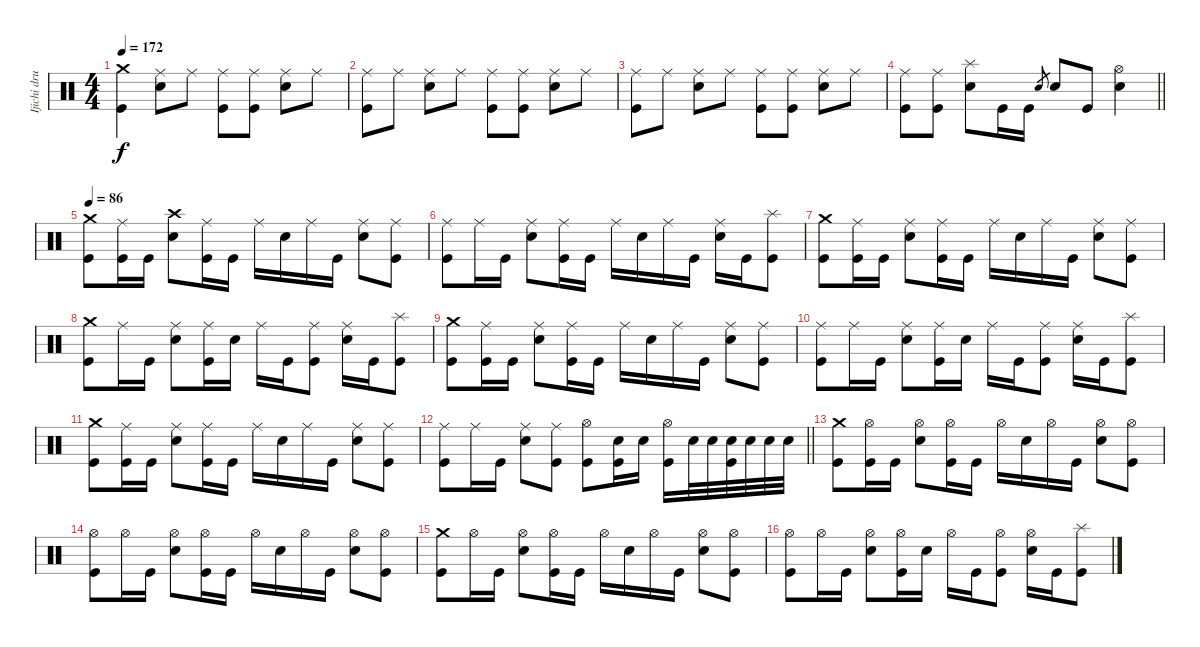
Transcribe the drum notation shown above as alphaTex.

\track ("Ijichi drums" "Ijichi dru") {instrument percussion}
\staff {score}
\articulation defaults
\ts (4 4)
\tempo 172
\clef neutral
\ks c
("Crash medium (hit)" "Kick (hit)").4{dy f} ("Ride (middle)" "Electric Snare (hit)").8 "Ride (middle)".8 ("Ride (middle)" "Kick (hit)").8 ("Ride (middle)" "Kick (hit)").8 ("Ride (middle)" "Electric Snare (hit)").8 "Ride (middle)".8 |
("Ride (middle)" "Kick (hit)").8 "Ride (middle)".8 ("Ride (middle)" "Electric Snare (hit)").8 "Ride (middle)".8 ("Ride (middle)" "Kick (hit)").8 ("Ride (middle)" "Kick (hit)").8 ("Ride (middle)" "Electric Snare (hit)").8 "Ride (middle)".8 |
("Ride (middle)" "Kick (hit)").8 "Ride (middle)".8 ("Ride (middle)" "Electric Snare (hit)").8 "Ride (middle)".8 ("Ride (middle)" "Kick (hit)").8 ("Ride (middle)" "Kick (hit)").8 ("Ride (middle)" "Electric Snare (hit)").8 "Ride (middle)".8 |
\barLineRight lightlight
("Ride (middle)" "Kick (hit)").8 ("Ride (middle)" "Kick (hit)").8 ("Splash (hit)" "Electric Snare (hit)").8 "Kick (hit)".16 "Kick (hit)".16 "Electric Snare (hit)".8{gr} "Electric Snare (hit)".8 "Kick (hit)".8 ("Hi-Hat (open)" "Electric Snare (hit)").4 |
\tempo 86
("Crash medium (hit)" "Kick (hit)").8 ("Ride (middle)" "Kick (hit)").16 "Kick (hit)".16 ("Crash high (hit)" "Electric Snare (hit)").8 ("Ride (middle)" "Kick (hit)").16 "Kick (hit)".16 "Ride (middle)".16 "Electric Snare (hit)".16 "Ride (middle)".16 "Kick (hit)".16 ("Ride (middle)" "Electric Snare (hit)").8 ("Ride (middle)" "Kick (hit)").8 |
("Ride (middle)" "Kick (hit)").8 "Ride (middle)".16 "Kick (hit)".16 ("Ride (middle)" "Electric Snare (hit)").8 ("Ride (middle)" "Kick (hit)").16 "Kick (hit)".16 "Ride (middle)".16 "Electric Snare (hit)".16 "Ride (middle)".16 "Kick (hit)".16 ("Ride (middle)" "Electric Snare (hit)").16 "Kick (hit)".16 ("Splash (hit)" "Kick (hit)").8 |
("Crash medium (hit)" "Kick (hit)").8 ("Ride (middle)" "Kick (hit)").16 "Kick (hit)".16 ("Ride (middle)" "Electric Snare (hit)").8 ("Ride (middle)" "Kick (hit)").16 "Kick (hit)".16 "Ride (middle)".16 "Electric Snare (hit)".16 "Ride (middle)".16 "Kick (hit)".16 ("Ride (middle)" "Electric Snare (hit)").8 ("Ride (middle)" "Kick (hit)").8 |
("Crash medium (hit)" "Kick (hit)").8 "Ride (middle)".16 "Kick (hit)".16 ("Ride (middle)" "Electric Snare (hit)").8 ("Ride (middle)" "Kick (hit)").16 "Electric Snare (hit)".16 "Ride (middle)".16 "Kick (hit)".16 ("Ride (middle)" "Kick (hit)").8 ("Ride (middle)" "Electric Snare (hit)").16 "Kick (hit)".16 ("Splash (hit)" "Kick (hit)").8 |
("Crash medium (hit)" "Kick (hit)").8 ("Ride (middle)" "Kick (hit)").16 "Kick (hit)".16 ("Ride (middle)" "Electric Snare (hit)").8 ("Ride (middle)" "Kick (hit)").16 "Kick (hit)".16 "Ride (middle)".16 "Electric Snare (hit)".16 "Ride (middle)".16 "Kick (hit)".16 ("Ride (middle)" "Electric Snare (hit)").8 ("Ride (middle)" "Kick (hit)").8 |
("Ride (middle)" "Kick (hit)").8 "Ride (middle)".16 "Kick (hit)".16 ("Ride (middle)" "Electric Snare (hit)").8 ("Ride (middle)" "Kick (hit)").16 "Electric Snare (hit)".16 "Ride (middle)".16 "Kick (hit)".16 ("Ride (middle)" "Kick (hit)").8 ("Ride (middle)" "Electric Snare (hit)").16 "Kick (hit)".16 ("Splash (hit)" "Kick (hit)").8 |
("Crash medium (hit)" "Kick (hit)").8 ("Ride (middle)" "Kick (hit)").16 "Kick (hit)".16 ("Ride (middle)" "Electric Snare (hit)").8 ("Ride (middle)" "Kick (hit)").16 "Kick (hit)".16 "Ride (middle)".16 "Electric Snare (hit)".16 "Ride (middle)".16 "Kick (hit)".16 ("Ride (middle)" "Electric Snare (hit)").8 ("Ride (middle)" "Kick (hit)").8 |
\barLineRight lightlight
("Ride (middle)" "Kick (hit)").8 "Ride (middle)".16 "Kick (hit)".16 ("Ride (middle)" "Electric Snare (hit)").8 ("Ride (middle)" "Kick (hit)").8 ("Hi-Hat (open)" "Kick (hit)").8 ("Electric Snare (hit)" "Kick (hit)").16 "Electric Snare (hit)".16 ("Hi-Hat (open)" "Kick (hit)").16 "Electric Snare (hit)".32 "Electric Snare (hit)".32 ("Electric Snare (hit)" "Kick (hit)").32 "Electric Snare (hit)".32 "Electric Snare (hit)".32 "Electric Snare (hit)".32 |
("Crash medium (hit)" "Kick (hit)").8 ("Hi-Hat (open)" "Kick (hit)").16 "Kick (hit)".16 ("Hi-Hat (open)" "Electric Snare (hit)").8 ("Hi-Hat (open)" "Kick (hit)").16 "Kick (hit)".16 "Hi-Hat (open)".16 "Electric Snare (hit)".16 "Hi-Hat (open)".16 "Kick (hit)".16 ("Hi-Hat (open)" "Electric Snare (hit)").8 ("Hi-Hat (open)" "Kick (hit)").8 |
("Hi-Hat (open)" "Kick (hit)").8 "Hi-Hat (open)".16 "Kick (hit)".16 ("Hi-Hat (open)" "Electric Snare (hit)").8 ("Hi-Hat (open)" "Kick (hit)").16 "Kick (hit)".16 "Hi-Hat (open)".16 "Electric Snare (hit)".16 "Hi-Hat (open)".16 "Kick (hit)".16 ("Hi-Hat (open)" "Electric Snare (hit)").8 ("Hi-Hat (open)" "Kick (hit)").8 |
("Crash medium (hit)" "Kick (hit)").8 "Hi-Hat (open)".16 "Kick (hit)".16 ("Hi-Hat (open)" "Electric Snare (hit)").8 ("Hi-Hat (open)" "Kick (hit)").16 "Kick (hit)".16 "Hi-Hat (open)".16 "Electric Snare (hit)".16 "Hi-Hat (open)".16 "Kick (hit)".16 ("Hi-Hat (open)" "Electric Snare (hit)").8 ("Hi-Hat (open)" "Kick (hit)").8 |
("Hi-Hat (open)" "Kick (hit)").8 "Hi-Hat (open)".16 "Kick (hit)".16 ("Hi-Hat (open)" "Electric Snare (hit)").8 ("Hi-Hat (open)" "Kick (hit)").16 "Electric Snare (hit)".16 "Hi-Hat (open)".16 "Kick (hit)".16 ("Hi-Hat (open)" "Kick (hit)").8 ("Hi-Hat (open)" "Electric Snare (hit)").16 "Kick (hit)".16 ("Splash (hit)" "Kick (hit)").8
